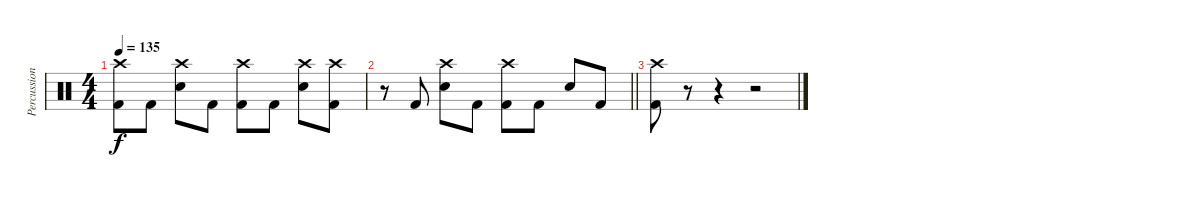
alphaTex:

\track ("Percussion" "Percussion") {instrument percussion}
\staff {score}
\articulation defaults
\ts (4 4)
\tempo 135
\clef neutral
\ks c
("Kick (hit) 2" "Crash high (hit)").8{dy f} "Kick (hit) 2".8 ("Snare (hit) 2" "Crash high (hit)").8 "Kick (hit) 2".8 ("Kick (hit) 2" "Crash high (hit)").8 "Kick (hit) 2".8 ("Snare (hit) 2" "Crash high (hit)").8 ("Kick (hit) 2" "Crash high (hit)").8 |
\barLineRight lightlight
r.8 "Kick (hit) 2".8 ("Snare (hit) 2" "Crash high (hit)").8 "Kick (hit) 2".8 ("Kick (hit) 2" "Crash high (hit)").8 "Kick (hit) 2".8 "Snare (hit) 2".8 "Kick (hit) 2".8 |
("Crash high (hit)" "Kick (hit) 2").8 r.8 r.4 r.2
